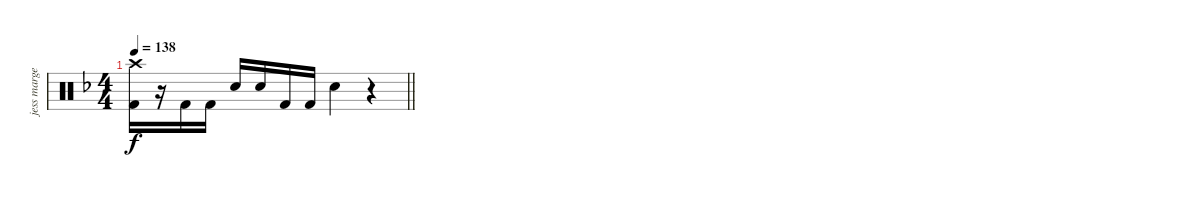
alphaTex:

\track ("jess margera" "jess marge") {instrument percussion}
\staff {score}
\articulation defaults
\ts (4 4)
\tempo 138
\clef neutral
\barLineRight lightlight
\ks f
("Crash high (hit)" "Kick (hit) 2").16{dy f} r.16 "Kick (hit) 2".16 "Kick (hit) 2".16 "Electric Snare (hit)".16 "Electric Snare (hit)".16 "Kick (hit) 2".16 "Kick (hit) 2".16 "Electric Snare (hit)".4 r.4
